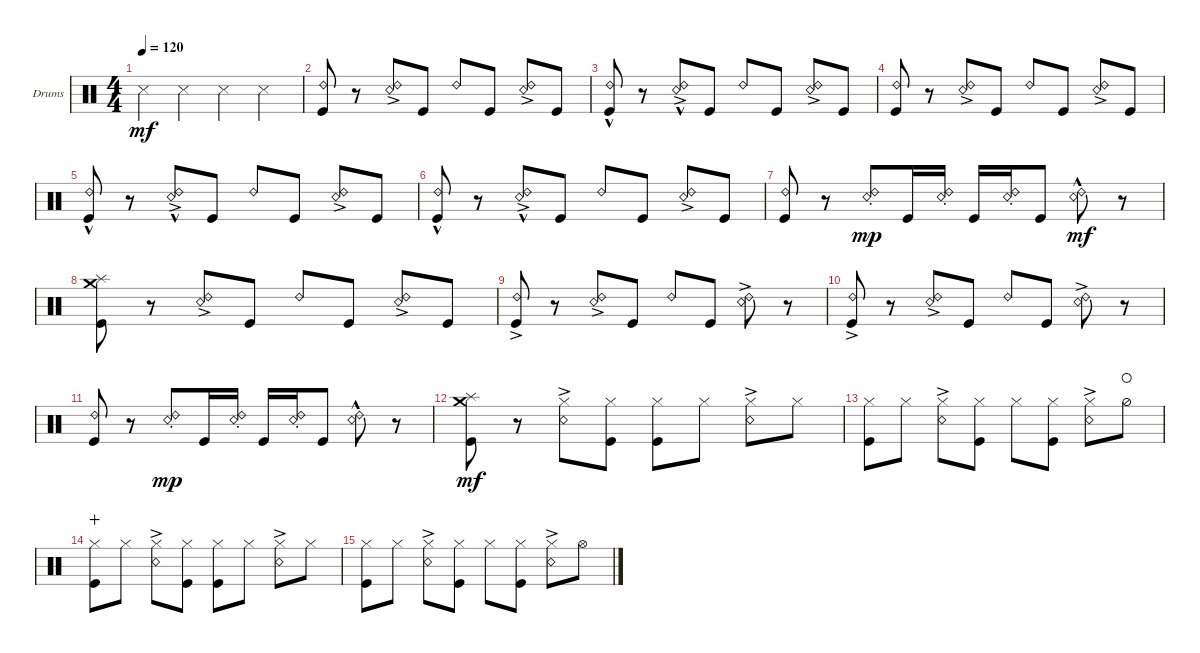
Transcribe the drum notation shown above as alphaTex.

\defaultSystemsLayout 4
\bracketExtendMode nobrackets
\firstSystemTrackNameOrientation horizontal
\otherSystemsTrackNameOrientation horizontal
\track ("Drumkit" "Drums") {instrument percussion}
\staff {score}
\articulation defaults
\ts (4 4)
\tempo 120
\clef neutral
\ks c "Snare (side stick) 3".4{dy mf} "Snare (side stick) 3".4 "Snare (side stick) 3".4 "Snare (side stick) 3".4
|
("Kick (hit)" "Ride (bell) 2").8 r.8 ("Snare (rim shot)"{ac} "Ride (bell) 2").8 "Kick (hit)".8 "Ride (bell) 2".8 "Kick (hit)".8 ("Snare (rim shot)"{ac} "Ride (bell) 2").8 "Kick (hit)".8 |
("Kick (hit)" "Ride (bell) 2"{hac}).8 r.8 ("Snare (rim shot)"{ac} "Ride (bell) 2"{hac}).8 "Kick (hit)".8 "Ride (bell) 2".8 "Kick (hit)".8 ("Snare (rim shot)"{ac} "Ride (bell) 2").8 "Kick (hit)".8 |
("Kick (hit)" "Ride (bell) 2").8 r.8 ("Snare (rim shot)"{ac} "Ride (bell) 2").8 "Kick (hit)".8 "Ride (bell) 2".8 "Kick (hit)".8 ("Snare (rim shot)"{ac} "Ride (bell) 2").8 "Kick (hit)".8 |
("Kick (hit)" "Ride (bell) 2"{hac}).8 r.8 ("Snare (rim shot)"{ac} "Ride (bell) 2"{hac}).8 "Kick (hit)".8 "Ride (bell) 2".8 "Kick (hit)".8 ("Snare (rim shot)"{ac} "Ride (bell) 2").8 "Kick (hit)".8 |
("Kick (hit)" "Ride (bell) 2"{hac}).8 r.8 ("Snare (rim shot)"{ac} "Ride (bell) 2"{hac}).8 "Kick (hit)".8 "Ride (bell) 2".8 "Kick (hit)".8 ("Snare (rim shot)"{ac} "Ride (bell) 2").8 "Kick (hit)".8 |
("Kick (hit)" "Ride (bell) 2").8 r.8 ("Snare (rim shot)"{st} "Ride (bell) 2").8{dy mp} "Kick (hit)".16 ("Snare (rim shot)"{st} "Ride (bell) 2").16 "Kick (hit)".16 ("Snare (rim shot)"{st} "Ride (bell) 2").16 "Kick (hit)".8 ("Snare (rim shot)"{hac} "Ride (bell) 2").8{dy mf} r.8 |
("Kick (hit)" "Crash medium (hit)" "Splash (hit)").8 r.8 ("Snare (rim shot)"{ac} "Ride (bell) 2").8 "Kick (hit)".8 "Ride (bell) 2".8 "Kick (hit)".8 ("Snare (rim shot)"{ac} "Ride (bell) 2").8 "Kick (hit)".8 |
("Kick (hit)" "Ride (bell) 2"{ac}).8 r.8 ("Snare (rim shot)"{ac} "Ride (bell) 2"{ac}).8 "Kick (hit)".8 "Ride (bell) 2".8 "Kick (hit)".8 ("Snare (rim shot)"{ac} "Ride (bell) 2").8 r.8 |
("Kick (hit)" "Ride (bell) 2"{ac}).8 r.8 ("Snare (rim shot)"{ac} "Ride (bell) 2"{ac}).8 "Kick (hit)".8 "Ride (bell) 2".8 "Kick (hit)".8 ("Snare (rim shot)"{ac} "Ride (bell) 2").8 r.8 |
("Kick (hit)" "Ride (bell) 2").8 r.8 ("Snare (rim shot)"{st} "Ride (bell) 2").8{dy mp} "Kick (hit)".16 ("Snare (rim shot)"{st} "Ride (bell) 2").16 "Kick (hit)".16 ("Snare (rim shot)"{st} "Ride (bell) 2").16 "Kick (hit)".8 ("Snare (rim shot)"{hac} "Ride (bell) 2").8 r.8 |
("Kick (hit)" "Crash medium (hit)" "Splash (hit)").8{dy mf} r.8 ("Snare (rim shot)"{ac} "Hi-Hat (closed)").8 ("Kick (hit)" "Hi-Hat (closed)").8 ("Hi-Hat (closed)" "Kick (hit)").8 "Hi-Hat (closed)".8 ("Snare (rim shot)"{ac} "Hi-Hat (closed)").8 "Hi-Hat (closed)".8 |
("Kick (hit)" "Hi-Hat (closed)").8 "Hi-Hat (closed)".8 ("Snare (rim shot)"{ac} "Hi-Hat (closed)").8 ("Kick (hit)" "Hi-Hat (closed)").8 "Hi-Hat (closed)".8 ("Kick (hit)" "Hi-Hat (closed)").8 ("Snare (rim shot)"{ac} "Hi-Hat (closed)").8 "Hi-Hat (half)".8{waho} |
("Kick (hit)" "Hi-Hat (closed)").8{wahc} "Hi-Hat (closed)".8 ("Snare (rim shot)"{ac} "Hi-Hat (closed)").8 ("Kick (hit)" "Hi-Hat (closed)").8 ("Hi-Hat (closed)" "Kick (hit)").8 "Hi-Hat (closed)".8 ("Snare (rim shot)"{ac} "Hi-Hat (closed)").8 "Hi-Hat (closed)".8 |
("Kick (hit)" "Hi-Hat (closed)").8 "Hi-Hat (closed)".8 ("Snare (rim shot)"{ac} "Hi-Hat (closed)").8 ("Kick (hit)" "Hi-Hat (closed)").8 "Hi-Hat (closed)".8 ("Kick (hit)" "Hi-Hat (closed)").8 ("Snare (rim shot)"{ac} "Hi-Hat (closed)").8 "Hi-Hat (open)".8
